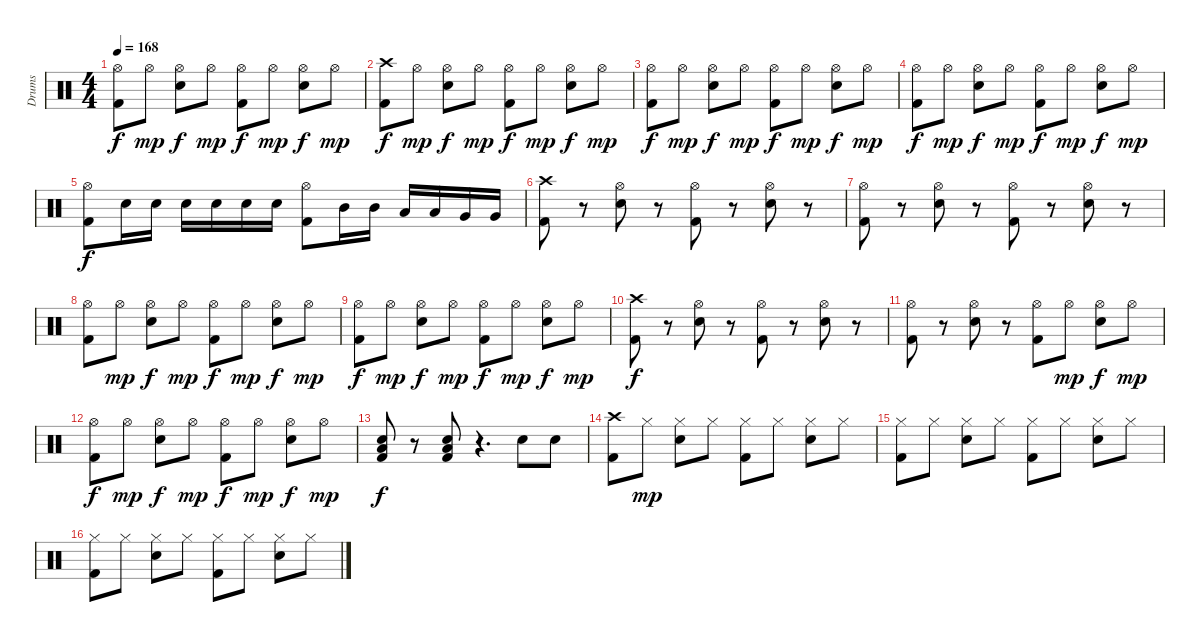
\track ("Drums" "Drums") {instrument percussion}
\staff {score}
\articulation defaults
\ts (4 4)
\tempo 168
\clef neutral
\ks c
("Hi-Hat (open)" "Kick (hit) 2").8{dy f} "Hi-Hat (open)".8{dy mp} ("Hi-Hat (open)" "Electric Snare (hit)").8{dy f} "Hi-Hat (open)".8{dy mp} ("Hi-Hat (open)" "Kick (hit) 2").8{dy f} "Hi-Hat (open)".8{dy mp} ("Hi-Hat (open)" "Electric Snare (hit)").8{dy f} "Hi-Hat (open)".8{dy mp} |
("Crash high (hit)" "Kick (hit) 2").8{dy f} "Hi-Hat (open)".8{dy mp} ("Hi-Hat (open)" "Electric Snare (hit)").8{dy f} "Hi-Hat (open)".8{dy mp} ("Hi-Hat (open)" "Kick (hit) 2").8{dy f} "Hi-Hat (open)".8{dy mp} ("Hi-Hat (open)" "Electric Snare (hit)").8{dy f} "Hi-Hat (open)".8{dy mp} |
("Hi-Hat (open)" "Kick (hit) 2").8{dy f} "Hi-Hat (open)".8{dy mp} ("Hi-Hat (open)" "Electric Snare (hit)").8{dy f} "Hi-Hat (open)".8{dy mp} ("Hi-Hat (open)" "Kick (hit) 2").8{dy f} "Hi-Hat (open)".8{dy mp} ("Hi-Hat (open)" "Electric Snare (hit)").8{dy f} "Hi-Hat (open)".8{dy mp} |
("Hi-Hat (open)" "Kick (hit) 2").8{dy f} "Hi-Hat (open)".8{dy mp} ("Hi-Hat (open)" "Electric Snare (hit)").8{dy f} "Hi-Hat (open)".8{dy mp} ("Hi-Hat (open)" "Kick (hit) 2").8{dy f} "Hi-Hat (open)".8{dy mp} ("Hi-Hat (open)" "Electric Snare (hit)").8{dy f} "Hi-Hat (open)".8{dy mp} |
("Hi-Hat (open)" "Kick (hit) 2").8{dy f} "Electric Snare (hit)".16 "Electric Snare (hit)".16 "Electric Snare (hit)".16 "Electric Snare (hit)".16 "Electric Snare (hit)".16 "Electric Snare (hit)".16 ("Hi-Hat (open)" "Kick (hit) 2").8 "Mid Tom (hit)".16 "Mid Tom (hit)".16 "Low Tom (hit)".16 "Low Tom (hit)".16 "Very Low Tom (hit)".16 "Very Low Tom (hit)".16 |
("Crash high (hit)" "Kick (hit) 2").8 r.8 ("Hi-Hat (open)" "Electric Snare (hit)").8 r.8 ("Hi-Hat (open)" "Kick (hit) 2").8 r.8 ("Hi-Hat (open)" "Electric Snare (hit)").8 r.8 |
("Hi-Hat (open)" "Kick (hit) 2").8 r.8 ("Hi-Hat (open)" "Electric Snare (hit)").8 r.8 ("Hi-Hat (open)" "Kick (hit) 2").8 r.8 ("Hi-Hat (open)" "Electric Snare (hit)").8 r.8 |
("Hi-Hat (open)" "Kick (hit) 2").8 "Hi-Hat (open)".8{dy mp} ("Hi-Hat (open)" "Electric Snare (hit)").8{dy f} "Hi-Hat (open)".8{dy mp} ("Hi-Hat (open)" "Kick (hit) 2").8{dy f} "Hi-Hat (open)".8{dy mp} ("Hi-Hat (open)" "Electric Snare (hit)").8{dy f} "Hi-Hat (open)".8{dy mp} |
("Hi-Hat (open)" "Kick (hit) 2").8{dy f} "Hi-Hat (open)".8{dy mp} ("Hi-Hat (open)" "Electric Snare (hit)").8{dy f} "Hi-Hat (open)".8{dy mp} ("Hi-Hat (open)" "Kick (hit) 2").8{dy f} "Hi-Hat (open)".8{dy mp} ("Hi-Hat (open)" "Electric Snare (hit)").8{dy f} "Hi-Hat (open)".8{dy mp} |
("Crash high (hit)" "Kick (hit) 2").8{dy f} r.8 ("Hi-Hat (open)" "Electric Snare (hit)").8 r.8 ("Hi-Hat (open)" "Kick (hit) 2").8 r.8 ("Hi-Hat (open)" "Electric Snare (hit)").8 r.8 |
("Hi-Hat (open)" "Kick (hit) 2").8 r.8 ("Hi-Hat (open)" "Electric Snare (hit)").8 r.8 ("Hi-Hat (open)" "Kick (hit) 2").8 "Hi-Hat (open)".8{dy mp} ("Hi-Hat (open)" "Electric Snare (hit)").8{dy f} "Hi-Hat (open)".8{dy mp} |
("Hi-Hat (open)" "Kick (hit) 2").8{dy f} "Hi-Hat (open)".8{dy mp} ("Hi-Hat (open)" "Electric Snare (hit)").8{dy f} "Hi-Hat (open)".8{dy mp} ("Hi-Hat (open)" "Kick (hit) 2").8{dy f} "Hi-Hat (open)".8{dy mp} ("Hi-Hat (open)" "Electric Snare (hit)").8{dy f} "Hi-Hat (open)".8{dy mp} |
("Electric Snare (hit)" "Low Tom (hit)" "Kick (hit) 2").8{dy f} r.8 ("Electric Snare (hit)" "Low Tom (hit)" "Kick (hit) 2").8 r.4{d} "Electric Snare (hit)".8 "Electric Snare (hit)".8 |
("Crash high (hit)" "Kick (hit) 2").8 "Hi-Hat (closed)".8{dy mp} ("Hi-Hat (closed)" "Electric Snare (hit)").8 "Hi-Hat (closed)".8 ("Hi-Hat (closed)" "Kick (hit) 2").8 "Hi-Hat (closed)".8 ("Hi-Hat (closed)" "Electric Snare (hit)").8 "Hi-Hat (closed)".8 |
("Hi-Hat (closed)" "Kick (hit) 2").8 "Hi-Hat (closed)".8 ("Hi-Hat (closed)" "Electric Snare (hit)").8 "Hi-Hat (closed)".8 ("Hi-Hat (closed)" "Kick (hit) 2").8 "Hi-Hat (closed)".8 ("Hi-Hat (closed)" "Electric Snare (hit)").8 "Hi-Hat (closed)".8 |
("Hi-Hat (closed)" "Kick (hit) 2").8 "Hi-Hat (closed)".8 ("Hi-Hat (closed)" "Electric Snare (hit)").8 "Hi-Hat (closed)".8 ("Hi-Hat (closed)" "Kick (hit) 2").8 "Hi-Hat (closed)".8 ("Hi-Hat (closed)" "Electric Snare (hit)").8 "Hi-Hat (closed)".8
